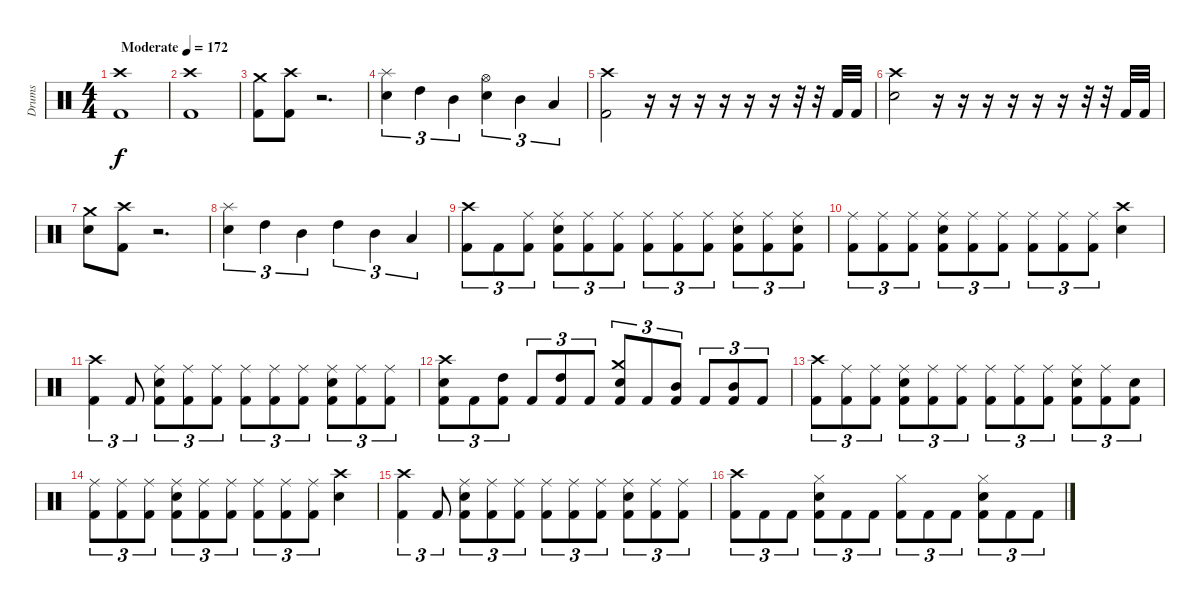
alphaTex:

\track ("Drums" "Drums") {instrument percussion}
\staff {score}
\articulation defaults
\ts (4 4)
\tempo (172 "Moderate")
\clef neutral
\ks c
("Crash high (hit)" "Kick (hit) 2").1{dy f} |
("Crash high (hit)" "Kick (hit) 2").1 |
("Crash medium (hit)" "Kick (hit) 2").8 ("Crash high (hit)" "Kick (hit) 2").8 r.2{d} |
("Splash (hit)" "Snare (hit) 2").4{tu (3 2)} "High Tom (hit)".4{tu (3 2)} "Mid Tom (hit)".4{tu (3 2)} ("Hi-Hat (open)" "Snare (hit) 2").4{tu (3 2)} "Mid Tom (hit)".4{tu (3 2)} "Low Tom (hit)".4{tu (3 2)} |
("Crash high (hit)" "Kick (hit) 2").2 r.16 r.16 r.16 r.16 r.16 r.16 r.32 r.32 "Kick (hit) 2".32 "Kick (hit) 2".32 |
("Crash high (hit)" "Snare (hit) 2").2 r.16 r.16 r.16 r.16 r.16 r.16 r.32 r.32 "Kick (hit) 2".32 "Kick (hit) 2".32 |
("Crash medium (hit)" "Snare (hit) 2").8 ("Crash high (hit)" "Kick (hit) 2").8 r.2{d} |
("Splash (hit)" "Snare (hit) 2").4{tu (3 2)} "High Tom (hit)".4{tu (3 2)} "Mid Tom (hit)".4{tu (3 2)} "High Tom (hit)".4{tu (3 2)} "Mid Tom (hit)".4{tu (3 2)} "Low Tom (hit)".4{tu (3 2)} |
("Crash high (hit)" "Kick (hit) 2").8{tu (3 2)} "Kick (hit) 2".8{tu (3 2)} ("Ride (middle)" "Kick (hit) 2").8{tu (3 2)} ("Ride (middle)" "Snare (hit) 2" "Kick (hit) 2").8{tu (3 2)} ("Ride (middle)" "Kick (hit) 2").8{tu (3 2)} ("Ride (middle)" "Kick (hit) 2").8{tu (3 2)} ("Ride (middle)" "Kick (hit) 2").8{tu (3 2)} ("Ride (middle)" "Kick (hit) 2").8{tu (3 2)} ("Ride (middle)" "Kick (hit) 2").8{tu (3 2)} ("Ride (middle)" "Snare (hit) 2" "Kick (hit) 2").8{tu (3 2)} ("Ride (middle)" "Kick (hit) 2").8{tu (3 2)} ("Ride (middle)" "Snare (hit) 2" "Kick (hit) 2").8{tu (3 2)} |
("Ride (middle)" "Kick (hit) 2").8{tu (3 2)} ("Ride (middle)" "Kick (hit) 2").8{tu (3 2)} ("Ride (middle)" "Kick (hit) 2").8{tu (3 2)} ("Ride (middle)" "Snare (hit) 2" "Kick (hit) 2").8{tu (3 2)} ("Ride (middle)" "Kick (hit) 2").8{tu (3 2)} ("Ride (middle)" "Kick (hit) 2").8{tu (3 2)} ("Ride (middle)" "Kick (hit) 2").8{tu (3 2)} ("Ride (middle)" "Kick (hit) 2").8{tu (3 2)} ("Ride (middle)" "Kick (hit) 2").8{tu (3 2)} ("Crash high (hit)" "Snare (hit) 2").4 |
("Crash high (hit)" "Kick (hit) 2").4{tu (3 2)} "Kick (hit) 2".8{tu (3 2)} ("Ride (middle)" "Snare (hit) 2" "Kick (hit) 2").8{tu (3 2)} ("Ride (middle)" "Kick (hit) 2").8{tu (3 2)} ("Ride (middle)" "Kick (hit) 2").8{tu (3 2)} ("Ride (middle)" "Kick (hit) 2").8{tu (3 2)} ("Ride (middle)" "Kick (hit) 2").8{tu (3 2)} ("Ride (middle)" "Kick (hit) 2").8{tu (3 2)} ("Ride (middle)" "Snare (hit) 2" "Kick (hit) 2").8{tu (3 2)} ("Ride (middle)" "Kick (hit) 2").8{tu (3 2)} ("Ride (middle)" "Kick (hit) 2").8{tu (3 2)} |
("Crash high (hit)" "Snare (hit) 2" "Kick (hit) 2").8{tu (3 2)} "Kick (hit) 2".8{tu (3 2)} ("High Tom (hit)" "Kick (hit) 2").8{tu (3 2)} "Kick (hit) 2".8{tu (3 2)} ("High Tom (hit)" "Kick (hit) 2").8{tu (3 2)} "Kick (hit) 2".8{tu (3 2)} ("Crash medium (hit)" "Snare (hit) 2" "Kick (hit) 2").8{tu (3 2)} "Kick (hit) 2".8{tu (3 2)} ("Mid Tom (hit)" "Kick (hit) 2").8{tu (3 2)} "Kick (hit) 2".8{tu (3 2)} ("Mid Tom (hit)" "Kick (hit) 2").8{tu (3 2)} "Kick (hit) 2".8{tu (3 2)} |
("Crash high (hit)" "Kick (hit) 2").8{tu (3 2)} ("Ride (middle)" "Kick (hit) 2").8{tu (3 2)} ("Ride (middle)" "Kick (hit) 2").8{tu (3 2)} ("Ride (middle)" "Snare (hit) 2" "Kick (hit) 2").8{tu (3 2)} ("Ride (middle)" "Kick (hit) 2").8{tu (3 2)} ("Ride (middle)" "Kick (hit) 2").8{tu (3 2)} ("Ride (middle)" "Kick (hit) 2").8{tu (3 2)} ("Ride (middle)" "Kick (hit) 2").8{tu (3 2)} ("Ride (middle)" "Kick (hit) 2").8{tu (3 2)} ("Ride (middle)" "Snare (hit) 2" "Kick (hit) 2").8{tu (3 2)} ("Ride (middle)" "Kick (hit) 2").8{tu (3 2)} ("Snare (hit) 2" "Kick (hit) 2").8{tu (3 2)} |
("Ride (middle)" "Kick (hit) 2").8{tu (3 2)} ("Ride (middle)" "Kick (hit) 2").8{tu (3 2)} ("Ride (middle)" "Kick (hit) 2").8{tu (3 2)} ("Ride (middle)" "Snare (hit) 2" "Kick (hit) 2").8{tu (3 2)} ("Ride (middle)" "Kick (hit) 2").8{tu (3 2)} ("Ride (middle)" "Kick (hit) 2").8{tu (3 2)} ("Ride (middle)" "Kick (hit) 2").8{tu (3 2)} ("Ride (middle)" "Kick (hit) 2").8{tu (3 2)} ("Ride (middle)" "Kick (hit) 2").8{tu (3 2)} ("Crash high (hit)" "Snare (hit) 2").4 |
("Crash high (hit)" "Kick (hit) 2").4{tu (3 2)} "Kick (hit) 2".8{tu (3 2)} ("Ride (middle)" "Snare (hit) 2" "Kick (hit) 2").8{tu (3 2)} ("Ride (middle)" "Kick (hit) 2").8{tu (3 2)} ("Ride (middle)" "Kick (hit) 2").8{tu (3 2)} ("Ride (middle)" "Kick (hit) 2").8{tu (3 2)} ("Ride (middle)" "Kick (hit) 2").8{tu (3 2)} ("Ride (middle)" "Kick (hit) 2").8{tu (3 2)} ("Ride (middle)" "Snare (hit) 2" "Kick (hit) 2").8{tu (3 2)} ("Ride (middle)" "Kick (hit) 2").8{tu (3 2)} ("Ride (middle)" "Kick (hit) 2").8{tu (3 2)} |
("Crash high (hit)" "Kick (hit) 2").8{tu (3 2)} "Kick (hit) 2".8{tu (3 2)} "Kick (hit) 2".8{tu (3 2)} ("Hi-Hat (closed)" "Snare (hit) 2" "Kick (hit) 2").8{tu (3 2)} "Kick (hit) 2".8{tu (3 2)} "Kick (hit) 2".8{tu (3 2)} ("Hi-Hat (closed)" "Kick (hit) 2").8{tu (3 2)} "Kick (hit) 2".8{tu (3 2)} "Kick (hit) 2".8{tu (3 2)} ("Hi-Hat (closed)" "Snare (hit) 2" "Kick (hit) 2").8{tu (3 2)} "Kick (hit) 2".8{tu (3 2)} "Kick (hit) 2".8{tu (3 2)}
